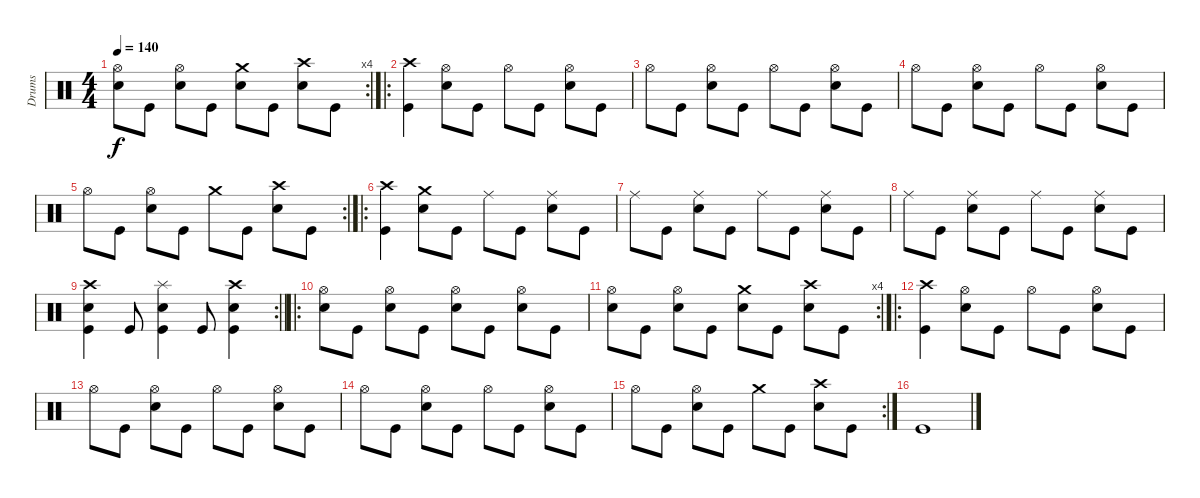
\track ("Drums" "Drums") {instrument percussion}
\staff {score}
\articulation defaults
\rc 4
\ts (4 4)
\tempo 140
\clef neutral
\ks c
("Hi-Hat (open)" "Electric Snare (hit)").8{dy f} "Kick (hit)".8 ("Hi-Hat (open)" "Electric Snare (hit)").8 "Kick (hit)".8 ("Crash medium (hit)" "Electric Snare (hit)").8 "Kick (hit)".8 ("Crash high (hit)" "Electric Snare (hit)").8 "Kick (hit)".8 |
\ro
("Crash high (hit)" "Kick (hit)").4 ("Hi-Hat (open)" "Electric Snare (hit)").8 "Kick (hit)".8 "Hi-Hat (open)".8 "Kick (hit)".8 ("Hi-Hat (open)" "Electric Snare (hit)").8 "Kick (hit)".8 |
"Hi-Hat (open)".8 "Kick (hit)".8 ("Hi-Hat (open)" "Electric Snare (hit)").8 "Kick (hit)".8 "Hi-Hat (open)".8 "Kick (hit)".8 ("Hi-Hat (open)" "Electric Snare (hit)").8 "Kick (hit)".8 |
"Hi-Hat (open)".8 "Kick (hit)".8 ("Hi-Hat (open)" "Electric Snare (hit)").8 "Kick (hit)".8 "Hi-Hat (open)".8 "Kick (hit)".8 ("Hi-Hat (open)" "Electric Snare (hit)").8 "Kick (hit)".8 |
\rc 2 "Hi-Hat (open)".8 "Kick (hit)".8
("Hi-Hat (open)" "Electric Snare (hit)").8 "Kick (hit)".8 "Crash medium (hit)".8 "Kick (hit)".8 ("Crash high (hit)" "Electric Snare (hit)").8 "Kick (hit)".8 |
\ro
("Crash high (hit)" "Kick (hit)").4 ("Crash medium (hit)" "Electric Snare (hit)").8 "Kick (hit)".8 "Ride (middle)".8 "Kick (hit)".8 ("Ride (middle)" "Electric Snare (hit)").8 "Kick (hit)".8 |
"Ride (middle)".8 "Kick (hit)".8 ("Ride (middle)" "Electric Snare (hit)").8 "Kick (hit)".8 "Ride (middle)".8 "Kick (hit)".8 ("Ride (middle)" "Electric Snare (hit)").8 "Kick (hit)".8 |
"Ride (middle)".8 "Kick (hit)".8 ("Ride (middle)" "Electric Snare (hit)").8 "Kick (hit)".8 "Ride (middle)".8 "Kick (hit)".8 ("Ride (middle)" "Electric Snare (hit)").8 "Kick (hit)".8 |
\rc 2
\barLineRight lightlight
("Crash high (hit)" "Electric Snare (hit)" "Kick (hit)").4 "Kick (hit)".8 ("Splash (hit)" "Electric Snare (hit)" "Kick (hit)").4 "Kick (hit)".8 ("Crash high (hit)" "Electric Snare (hit)" "Kick (hit)").4 |
\ro
("Hi-Hat (open)" "Electric Snare (hit)").8 "Kick (hit)".8 ("Hi-Hat (open)" "Electric Snare (hit)").8 "Kick (hit)".8 ("Hi-Hat (open)" "Electric Snare (hit)").8 "Kick (hit)".8 ("Hi-Hat (open)" "Electric Snare (hit)").8 "Kick (hit)".8 |
\rc 4
("Hi-Hat (open)" "Electric Snare (hit)").8 "Kick (hit)".8 ("Hi-Hat (open)" "Electric Snare (hit)").8 "Kick (hit)".8 ("Crash medium (hit)" "Electric Snare (hit)").8 "Kick (hit)".8 ("Crash high (hit)" "Electric Snare (hit)").8 "Kick (hit)".8 |
\ro
("Crash high (hit)" "Kick (hit)").4 ("Hi-Hat (open)" "Electric Snare (hit)").8 "Kick (hit)".8 "Hi-Hat (open)".8 "Kick (hit)".8 ("Hi-Hat (open)" "Electric Snare (hit)").8 "Kick (hit)".8 |
"Hi-Hat (open)".8 "Kick (hit)".8 ("Hi-Hat (open)" "Electric Snare (hit)").8 "Kick (hit)".8 "Hi-Hat (open)".8 "Kick (hit)".8 ("Hi-Hat (open)" "Electric Snare (hit)").8 "Kick (hit)".8 |
"Hi-Hat (open)".8 "Kick (hit)".8 ("Hi-Hat (open)" "Electric Snare (hit)").8 "Kick (hit)".8 "Hi-Hat (open)".8 "Kick (hit)".8 ("Hi-Hat (open)" "Electric Snare (hit)").8 "Kick (hit)".8 |
\rc 2 "Hi-Hat (open)".8 "Kick (hit)".8
("Hi-Hat (open)" "Electric Snare (hit)").8 "Kick (hit)".8 "Crash medium (hit)".8 "Kick (hit)".8 ("Crash high (hit)" "Electric Snare (hit)").8 "Kick (hit)".8 |
"Kick (hit)".1
